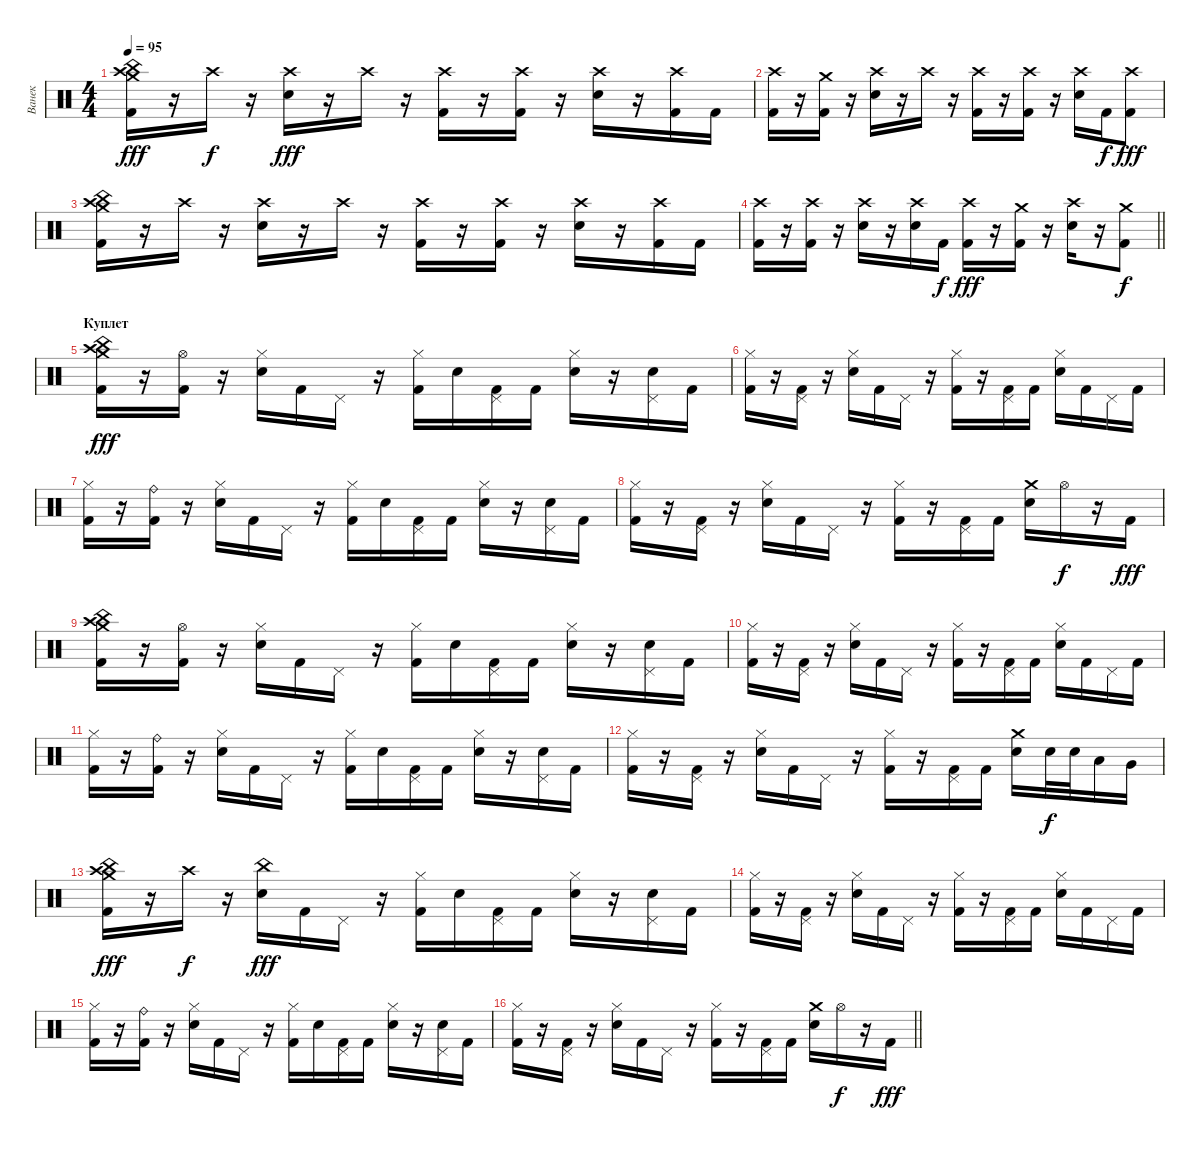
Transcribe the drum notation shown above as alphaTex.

\track ("Ванек" "Ванек") {instrument percussion}
\staff {score}
\articulation defaults
\ts (4 4)
\tempo 95
\clef neutral
\ks c
("Crash high (hit)" "Crash medium (hit)" "China (hit)" "Kick (hit) 2").16{dy fff} r.16 "Crash high (hit)".16{dy f} r.16 ("Crash high (hit)" "Snare (hit) 2").16{dy fff} r.16 "Crash high (hit)".16 r.16 ("Crash high (hit)" "Kick (hit) 2").16 r.16 ("Crash high (hit)" "Kick (hit) 2").16 r.16 ("Crash high (hit)" "Snare (hit) 2").16 r.16 ("Crash high (hit)" "Kick (hit) 2").16 "Kick (hit) 2".16 |
("Crash high (hit)" "Kick (hit) 2").16 r.16 ("Crash medium (hit)" "Kick (hit) 2").16 r.16 ("Crash high (hit)" "Snare (hit) 2").16 r.16 "Crash high (hit)".16 r.16 ("Crash high (hit)" "Kick (hit) 2").16 r.16 ("Crash high (hit)" "Kick (hit) 2").16 r.16 ("Crash high (hit)" "Snare (hit) 2").16 "Kick (hit) 2".16{dy f} ("Crash high (hit)" "Kick (hit) 2").8{dy fff} |
("Crash high (hit)" "Crash medium (hit)" "China (hit)" "Kick (hit) 2").16 r.16 "Crash high (hit)".16 r.16 ("Crash high (hit)" "Snare (hit) 2").16 r.16 "Crash high (hit)".16 r.16 ("Crash high (hit)" "Kick (hit) 2").16 r.16 ("Crash high (hit)" "Kick (hit) 2").16 r.16 ("Crash high (hit)" "Snare (hit) 2").16 r.16 ("Crash high (hit)" "Kick (hit) 2").16 "Kick (hit) 2".16 |
\barLineRight lightlight
("Crash high (hit)" "Kick (hit) 2").16 r.16 ("Crash high (hit)" "Kick (hit) 2").16 r.16 ("Crash high (hit)" "Snare (hit) 2").16 r.16 ("Crash high (hit)" "Snare (hit) 2").16 "Kick (hit) 2".16{dy f} ("Crash high (hit)" "Kick (hit) 2").16{dy fff} r.16 ("Crash medium (hit)" "Kick (hit) 2").16 r.16 ("Crash high (hit)" "Snare (hit) 2").16 r.16 ("Crash medium (hit)" "Kick (hit) 2").8{dy f} |
\section ("" "Куплет")
("Crash high (hit)" "Crash medium (hit)" "China (hit)" "Kick (hit) 2").16{dy fff} r.16 ("Hi-Hat (open)" "Kick (hit) 2").16 r.16 ("Hi-Hat (closed)" "Snare (hit) 2").16 "Kick (hit) 2".16 "Pedal Hi-Hat (hit)".16 r.16 ("Hi-Hat (closed)" "Kick (hit) 2").16 "Snare (hit) 2".16 ("Pedal Hi-Hat (hit)" "Kick (hit) 2").16 "Kick (hit) 2".16 ("Hi-Hat (closed)" "Snare (hit) 2").16 r.16 ("Pedal Hi-Hat (hit)" "Snare (hit) 2").16 "Kick (hit) 2".16 |
("Hi-Hat (closed)" "Kick (hit) 2").16 r.16 ("Pedal Hi-Hat (hit)" "Kick (hit) 2").16 r.16 ("Hi-Hat (closed)" "Snare (hit) 2").16 "Kick (hit) 2".16 "Pedal Hi-Hat (hit)".16 r.16 ("Hi-Hat (closed)" "Kick (hit) 2").16 r.16 ("Pedal Hi-Hat (hit)" "Kick (hit) 2").16 "Kick (hit) 2".16 ("Hi-Hat (closed)" "Snare (hit) 2").16 "Kick (hit) 2".16 "Pedal Hi-Hat (hit)".16 "Kick (hit) 2".16 |
("Hi-Hat (closed)" "Kick (hit) 2").16 r.16 ("Ride (bell)" "Kick (hit) 2").16 r.16 ("Hi-Hat (closed)" "Snare (hit) 2").16 "Kick (hit) 2".16 "Pedal Hi-Hat (hit)".16 r.16 ("Hi-Hat (closed)" "Kick (hit) 2").16 "Snare (hit) 2".16 ("Pedal Hi-Hat (hit)" "Kick (hit) 2").16 "Kick (hit) 2".16 ("Hi-Hat (closed)" "Snare (hit) 2").16 r.16 ("Pedal Hi-Hat (hit)" "Snare (hit) 2").16 "Kick (hit) 2".16 |
("Hi-Hat (closed)" "Kick (hit) 2").16 r.16 ("Pedal Hi-Hat (hit)" "Kick (hit) 2").16 r.16 ("Hi-Hat (closed)" "Snare (hit) 2").16 "Kick (hit) 2".16 "Pedal Hi-Hat (hit)".16 r.16 ("Hi-Hat (closed)" "Kick (hit) 2").16 r.16 ("Pedal Hi-Hat (hit)" "Kick (hit) 2").16 "Kick (hit) 2".16 ("Crash medium (hit)" "Snare (hit) 2").16 "Hi-Hat (open)".16{dy f} r.16 "Kick (hit) 2".16{dy fff} |
("Crash high (hit)" "Crash medium (hit)" "China (hit)" "Kick (hit) 2").16 r.16 ("Hi-Hat (open)" "Kick (hit) 2").16 r.16 ("Hi-Hat (closed)" "Snare (hit) 2").16 "Kick (hit) 2".16 "Pedal Hi-Hat (hit)".16 r.16 ("Hi-Hat (closed)" "Kick (hit) 2").16 "Snare (hit) 2".16 ("Pedal Hi-Hat (hit)" "Kick (hit) 2").16 "Kick (hit) 2".16 ("Hi-Hat (closed)" "Snare (hit) 2").16 r.16 ("Pedal Hi-Hat (hit)" "Snare (hit) 2").16 "Kick (hit) 2".16 |
("Hi-Hat (closed)" "Kick (hit) 2").16 r.16 ("Pedal Hi-Hat (hit)" "Kick (hit) 2").16 r.16 ("Hi-Hat (closed)" "Snare (hit) 2").16 "Kick (hit) 2".16 "Pedal Hi-Hat (hit)".16 r.16 ("Hi-Hat (closed)" "Kick (hit) 2").16 r.16 ("Pedal Hi-Hat (hit)" "Kick (hit) 2").16 "Kick (hit) 2".16 ("Hi-Hat (closed)" "Snare (hit) 2").16 "Kick (hit) 2".16 "Pedal Hi-Hat (hit)".16 "Kick (hit) 2".16 |
("Hi-Hat (closed)" "Kick (hit) 2").16 r.16 ("Ride (bell)" "Kick (hit) 2").16 r.16 ("Hi-Hat (closed)" "Snare (hit) 2").16 "Kick (hit) 2".16 "Pedal Hi-Hat (hit)".16 r.16 ("Hi-Hat (closed)" "Kick (hit) 2").16 "Snare (hit) 2".16 ("Pedal Hi-Hat (hit)" "Kick (hit) 2").16 "Kick (hit) 2".16 ("Hi-Hat (closed)" "Snare (hit) 2").16 r.16 ("Pedal Hi-Hat (hit)" "Snare (hit) 2").16 "Kick (hit) 2".16 |
("Hi-Hat (closed)" "Kick (hit) 2").16 r.16 ("Pedal Hi-Hat (hit)" "Kick (hit) 2").16 r.16 ("Hi-Hat (closed)" "Snare (hit) 2").16 "Kick (hit) 2".16 "Pedal Hi-Hat (hit)".16 r.16 ("Hi-Hat (closed)" "Kick (hit) 2").16 r.16 ("Pedal Hi-Hat (hit)" "Kick (hit) 2").16 "Kick (hit) 2".16 ("Crash medium (hit)" "Snare (hit) 2").16 "Snare (hit) 2".32{dy f} "Snare (hit) 2".32 "Low Floor Tom (hit)".16 "Very Low Tom (hit)".16 |
("Crash high (hit)" "Crash medium (hit)" "China (hit)" "Kick (hit) 2").16{dy fff} r.16 "Crash high (hit)".16{dy f} r.16 ("China (hit)" "Snare (hit) 2").16{dy fff} "Kick (hit) 2".16 "Pedal Hi-Hat (hit)".16 r.16 ("Hi-Hat (closed)" "Kick (hit) 2").16 "Snare (hit) 2".16 ("Pedal Hi-Hat (hit)" "Kick (hit) 2").16 "Kick (hit) 2".16 ("Hi-Hat (closed)" "Snare (hit) 2").16 r.16 ("Pedal Hi-Hat (hit)" "Snare (hit) 2").16 "Kick (hit) 2".16 |
("Hi-Hat (closed)" "Kick (hit) 2").16 r.16 ("Pedal Hi-Hat (hit)" "Kick (hit) 2").16 r.16 ("Hi-Hat (closed)" "Snare (hit) 2").16 "Kick (hit) 2".16 "Pedal Hi-Hat (hit)".16 r.16 ("Hi-Hat (closed)" "Kick (hit) 2").16 r.16 ("Pedal Hi-Hat (hit)" "Kick (hit) 2").16 "Kick (hit) 2".16 ("Hi-Hat (closed)" "Snare (hit) 2").16 "Kick (hit) 2".16 "Pedal Hi-Hat (hit)".16 "Kick (hit) 2".16 |
("Hi-Hat (closed)" "Kick (hit) 2").16 r.16 ("Ride (bell)" "Kick (hit) 2").16 r.16 ("Hi-Hat (closed)" "Snare (hit) 2").16 "Kick (hit) 2".16 "Pedal Hi-Hat (hit)".16 r.16 ("Hi-Hat (closed)" "Kick (hit) 2").16 "Snare (hit) 2".16 ("Pedal Hi-Hat (hit)" "Kick (hit) 2").16 "Kick (hit) 2".16 ("Hi-Hat (closed)" "Snare (hit) 2").16 r.16 ("Pedal Hi-Hat (hit)" "Snare (hit) 2").16 "Kick (hit) 2".16 |
\barLineRight lightlight
("Hi-Hat (closed)" "Kick (hit) 2").16 r.16 ("Pedal Hi-Hat (hit)" "Kick (hit) 2").16 r.16 ("Hi-Hat (closed)" "Snare (hit) 2").16 "Kick (hit) 2".16 "Pedal Hi-Hat (hit)".16 r.16 ("Hi-Hat (closed)" "Kick (hit) 2").16 r.16 ("Pedal Hi-Hat (hit)" "Kick (hit) 2").16 "Kick (hit) 2".16 ("Crash medium (hit)" "Snare (hit) 2").16 "Hi-Hat (open)".16{dy f} r.16 "Kick (hit) 2".16{dy fff}
